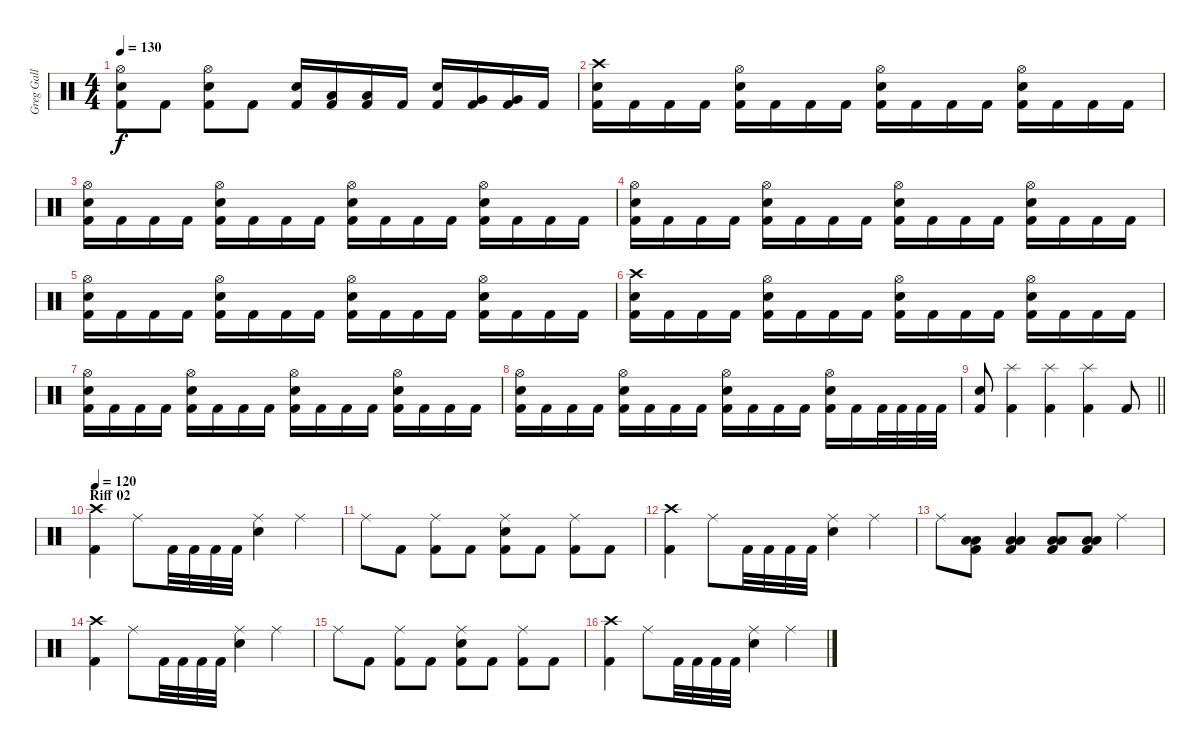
\track ("Greg Gall" "Greg Gall") {instrument percussion}
\staff {score}
\articulation defaults
\ts (4 4)
\tempo 130
\clef neutral
\ks c
("Hi-Hat (open)" "Electric Snare (hit)" "Kick (hit) 2").8{dy f} "Kick (hit) 2".8 ("Hi-Hat (open)" "Electric Snare (hit)" "Kick (hit) 2").8 "Kick (hit) 2".8 ("Electric Snare (hit)" "Kick (hit) 2").16 ("Low Tom (hit)" "Kick (hit) 2").16 ("Low Tom (hit)" "Kick (hit) 2").16 "Kick (hit) 2".16 ("Electric Snare (hit)" "Kick (hit) 2").16 ("Very Low Tom (hit)" "Kick (hit) 2").16 ("Very Low Tom (hit)" "Kick (hit) 2").16 "Kick (hit) 2".16 |
("Crash high (hit)" "Electric Snare (hit)" "Kick (hit) 2").16 "Kick (hit) 2".16 "Kick (hit) 2".16 "Kick (hit) 2".16 ("Hi-Hat (open)" "Electric Snare (hit)" "Kick (hit) 2").16 "Kick (hit) 2".16 "Kick (hit) 2".16 "Kick (hit) 2".16 ("Hi-Hat (open)" "Electric Snare (hit)" "Kick (hit) 2").16 "Kick (hit) 2".16 "Kick (hit) 2".16 "Kick (hit) 2".16 ("Hi-Hat (open)" "Electric Snare (hit)" "Kick (hit) 2").16 "Kick (hit) 2".16 "Kick (hit) 2".16 "Kick (hit) 2".16 |
("Hi-Hat (open)" "Electric Snare (hit)" "Kick (hit) 2").16 "Kick (hit) 2".16 "Kick (hit) 2".16 "Kick (hit) 2".16 ("Hi-Hat (open)" "Electric Snare (hit)" "Kick (hit) 2").16 "Kick (hit) 2".16 "Kick (hit) 2".16 "Kick (hit) 2".16 ("Hi-Hat (open)" "Electric Snare (hit)" "Kick (hit) 2").16 "Kick (hit) 2".16 "Kick (hit) 2".16 "Kick (hit) 2".16 ("Hi-Hat (open)" "Electric Snare (hit)" "Kick (hit) 2").16 "Kick (hit) 2".16 "Kick (hit) 2".16 "Kick (hit) 2".16 |
("Hi-Hat (open)" "Electric Snare (hit)" "Kick (hit) 2").16 "Kick (hit) 2".16 "Kick (hit) 2".16 "Kick (hit) 2".16 ("Hi-Hat (open)" "Electric Snare (hit)" "Kick (hit) 2").16 "Kick (hit) 2".16 "Kick (hit) 2".16 "Kick (hit) 2".16 ("Hi-Hat (open)" "Electric Snare (hit)" "Kick (hit) 2").16 "Kick (hit) 2".16 "Kick (hit) 2".16 "Kick (hit) 2".16 ("Hi-Hat (open)" "Electric Snare (hit)" "Kick (hit) 2").16 "Kick (hit) 2".16 "Kick (hit) 2".16 "Kick (hit) 2".16 |
("Hi-Hat (open)" "Electric Snare (hit)" "Kick (hit) 2").16 "Kick (hit) 2".16 "Kick (hit) 2".16 "Kick (hit) 2".16 ("Hi-Hat (open)" "Electric Snare (hit)" "Kick (hit) 2").16 "Kick (hit) 2".16 "Kick (hit) 2".16 "Kick (hit) 2".16 ("Hi-Hat (open)" "Electric Snare (hit)" "Kick (hit) 2").16 "Kick (hit) 2".16 "Kick (hit) 2".16 "Kick (hit) 2".16 ("Hi-Hat (open)" "Electric Snare (hit)" "Kick (hit) 2").16 "Kick (hit) 2".16 "Kick (hit) 2".16 "Kick (hit) 2".16 |
("Crash high (hit)" "Electric Snare (hit)" "Kick (hit) 2").16 "Kick (hit) 2".16 "Kick (hit) 2".16 "Kick (hit) 2".16 ("Hi-Hat (open)" "Electric Snare (hit)" "Kick (hit) 2").16 "Kick (hit) 2".16 "Kick (hit) 2".16 "Kick (hit) 2".16 ("Hi-Hat (open)" "Electric Snare (hit)" "Kick (hit) 2").16 "Kick (hit) 2".16 "Kick (hit) 2".16 "Kick (hit) 2".16 ("Hi-Hat (open)" "Electric Snare (hit)" "Kick (hit) 2").16 "Kick (hit) 2".16 "Kick (hit) 2".16 "Kick (hit) 2".16 |
("Hi-Hat (open)" "Electric Snare (hit)" "Kick (hit) 2").16 "Kick (hit) 2".16 "Kick (hit) 2".16 "Kick (hit) 2".16 ("Hi-Hat (open)" "Electric Snare (hit)" "Kick (hit) 2").16 "Kick (hit) 2".16 "Kick (hit) 2".16 "Kick (hit) 2".16 ("Hi-Hat (open)" "Electric Snare (hit)" "Kick (hit) 2").16 "Kick (hit) 2".16 "Kick (hit) 2".16 "Kick (hit) 2".16 ("Hi-Hat (open)" "Electric Snare (hit)" "Kick (hit) 2").16 "Kick (hit) 2".16 "Kick (hit) 2".16 "Kick (hit) 2".16 |
("Hi-Hat (open)" "Electric Snare (hit)" "Kick (hit) 2").16 "Kick (hit) 2".16 "Kick (hit) 2".16 "Kick (hit) 2".16 ("Hi-Hat (open)" "Electric Snare (hit)" "Kick (hit) 2").16 "Kick (hit) 2".16 "Kick (hit) 2".16 "Kick (hit) 2".16 ("Hi-Hat (open)" "Electric Snare (hit)" "Kick (hit) 2").16 "Kick (hit) 2".16 "Kick (hit) 2".16 "Kick (hit) 2".16 ("Hi-Hat (open)" "Electric Snare (hit)" "Kick (hit) 2").16 "Kick (hit) 2".16 "Kick (hit) 2".32 "Kick (hit) 2".32 "Kick (hit) 2".32 "Kick (hit) 2".32 |
\barLineRight lightlight
("Electric Snare (hit)" "Kick (hit) 2").8 ("Splash (hit)" "Kick (hit) 2").4 ("Splash (hit)" "Kick (hit) 2").4 ("Splash (hit)" "Kick (hit) 2").4 "Kick (hit) 2".8 |
\section ("" "Riff 02")
\tempo 120
("Crash high (hit)" "Kick (hit) 2").4 "Ride (middle)".8 "Kick (hit) 2".32 "Kick (hit) 2".32 "Kick (hit) 2".32 "Kick (hit) 2".32 ("Ride (middle)" "Electric Snare (hit)").4 "Ride (middle)".4 |
"Ride (middle)".8 "Kick (hit) 2".8 ("Ride (middle)" "Kick (hit) 2").8 "Kick (hit) 2".8 ("Ride (middle)" "Electric Snare (hit)" "Kick (hit) 2").8 "Kick (hit) 2".8 ("Ride (middle)" "Kick (hit) 2").8 "Kick (hit) 2".8 |
("Crash high (hit)" "Kick (hit) 2").4 "Ride (middle)".8 "Kick (hit) 2".32 "Kick (hit) 2".32 "Kick (hit) 2".32 "Kick (hit) 2".32 ("Ride (middle)" "Electric Snare (hit)").4 "Ride (middle)".4 |
"Ride (middle)".8 ("Low Floor Tom (hit)" "Low Floor Tom (hit)" "Kick (hit) 2").8 ("Low Floor Tom (hit)" "Low Floor Tom (hit)" "Kick (hit) 2").4 ("Low Floor Tom (hit)" "Low Floor Tom (hit)" "Kick (hit) 2").8 ("Low Floor Tom (hit)" "Low Floor Tom (hit)" "Kick (hit) 2").8 "Ride (middle)".4 |
("Crash high (hit)" "Kick (hit) 2").4 "Ride (middle)".8 "Kick (hit) 2".32 "Kick (hit) 2".32 "Kick (hit) 2".32 "Kick (hit) 2".32 ("Ride (middle)" "Electric Snare (hit)").4 "Ride (middle)".4 |
"Ride (middle)".8 "Kick (hit) 2".8 ("Ride (middle)" "Kick (hit) 2").8 "Kick (hit) 2".8 ("Ride (middle)" "Electric Snare (hit)" "Kick (hit) 2").8 "Kick (hit) 2".8 ("Ride (middle)" "Kick (hit) 2").8 "Kick (hit) 2".8 |
("Crash high (hit)" "Kick (hit) 2").4 "Ride (middle)".8 "Kick (hit) 2".32 "Kick (hit) 2".32 "Kick (hit) 2".32 "Kick (hit) 2".32 ("Ride (middle)" "Electric Snare (hit)").4 "Ride (middle)".4
